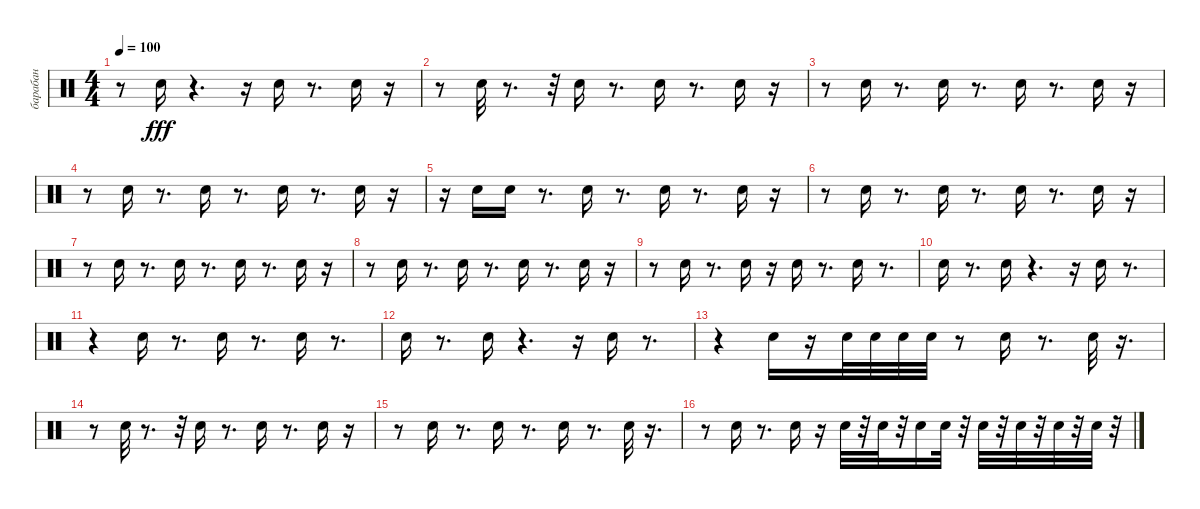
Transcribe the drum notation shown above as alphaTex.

\track ("барабан" "барабан") {instrument percussion}
\staff {score}
\articulation defaults
\ts (4 4)
\tempo 100
\clef neutral
\ks c
r.8{dy fff} "Snare (hit) 2".16 r.4{d} r.16 "Snare (hit) 2".16 r.8{d} "Snare (hit) 2".16 r.16 |
r.8 "Snare (hit) 2".32 r.8{d} r.32 "Snare (hit) 2".16 r.8{d} "Snare (hit) 2".16 r.8{d} "Snare (hit) 2".16 r.16 |
r.8 "Snare (hit) 2".16 r.8{d} "Snare (hit) 2".16 r.8{d} "Snare (hit) 2".16 r.8{d} "Snare (hit) 2".16 r.16 |
r.8 "Snare (hit) 2".16 r.8{d} "Snare (hit) 2".16 r.8{d} "Snare (hit) 2".16 r.8{d} "Snare (hit) 2".16 r.16 |
r.16 "Snare (hit) 2".16 "Snare (hit) 2".16 r.8{d} "Snare (hit) 2".16 r.8{d} "Snare (hit) 2".16 r.8{d} "Snare (hit) 2".16 r.16 |
r.8 "Snare (hit) 2".16 r.8{d} "Snare (hit) 2".16 r.8{d} "Snare (hit) 2".16 r.8{d} "Snare (hit) 2".16 r.16 |
r.8 "Snare (hit) 2".16 r.8{d} "Snare (hit) 2".16 r.8{d} "Snare (hit) 2".16 r.8{d} "Snare (hit) 2".16 r.16 |
r.8 "Snare (hit) 2".16 r.8{d} "Snare (hit) 2".16 r.8{d} "Snare (hit) 2".16 r.8{d} "Snare (hit) 2".16 r.16 |
r.8 "Snare (hit) 2".16 r.8{d} "Snare (hit) 2".16 r.16 "Snare (hit) 2".16 r.8{d} "Snare (hit) 2".16 r.8{d} |
"Snare (hit) 2".16 r.8{d} "Snare (hit) 2".16 r.4{d} r.16 "Snare (hit) 2".16 r.8{d} |
r.4 "Snare (hit) 2".16 r.8{d} "Snare (hit) 2".16 r.8{d} "Snare (hit) 2".16 r.8{d} |
"Snare (hit) 2".16 r.8{d} "Snare (hit) 2".16 r.4{d} r.16 "Snare (hit) 2".16 r.8{d} |
r.4 "Snare (hit) 2".16 r.16 "Snare (hit) 2".32 "Snare (hit) 2".32 "Snare (hit) 2".32 "Snare (hit) 2".32 r.8 "Snare (hit) 2".16 r.8{d} "Snare (hit) 2".32 r.16{d} |
r.8 "Snare (hit) 2".32 r.8{d} r.32 "Snare (hit) 2".16 r.8{d} "Snare (hit) 2".16 r.8{d} "Snare (hit) 2".16 r.16 |
r.8 "Snare (hit) 2".16 r.8{d} "Snare (hit) 2".16 r.8{d} "Snare (hit) 2".16 r.8{d} "Snare (hit) 2".32 r.16{d} |
r.8 "Snare (hit) 2".16 r.8{d} "Snare (hit) 2".16 r.16 "Snare (hit) 2".32 r.32 "Snare (hit) 2".32 r.32 "Snare (hit) 2".16 "Snare (hit) 2".32 r.32 "Snare (hit) 2".32 r.32 "Snare (hit) 2".32 r.32 "Snare (hit) 2".32 r.32 "Snare (hit) 2".32 r.32
